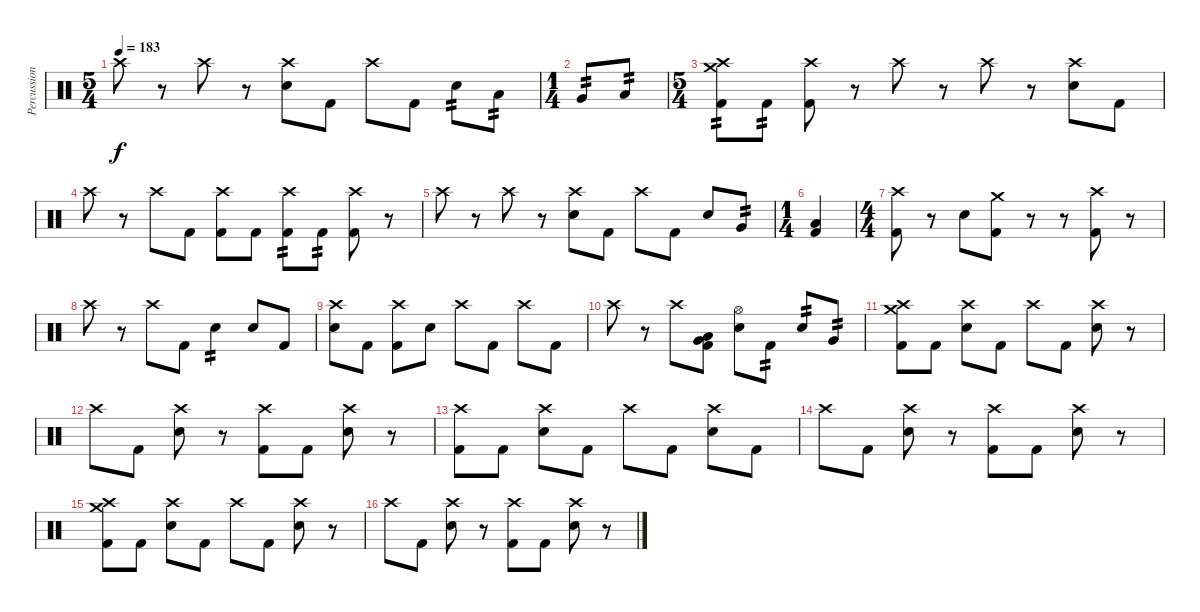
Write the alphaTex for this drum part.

\track ("Percussion" "Percussion") {instrument percussion}
\staff {score}
\articulation defaults
\ts (5 4)
\tempo 183
\clef neutral
\ks c "Crash high (hit)".8{dy f}
r.8 "Crash high (hit)".8 r.8 ("Snare (hit) 2" "Crash high (hit)").8 "Kick (hit) 2".8 "Crash high (hit)".8 "Kick (hit) 2".8 "Snare (hit) 2".8{tp 2} "Low Tom (hit)".8{tp 2} |
\ts (1 4)
"Very Low Tom (hit)".8{tp 2} "Low Floor Tom (hit)".8{tp 2} |
\ts (5 4)
("Crash high (hit)" "Crash medium (hit)" "Kick (hit) 2").8{tp 2} "Kick (hit) 2".8{tp 2} ("Crash high (hit)" "Kick (hit) 2").8 r.8 "Crash high (hit)".8 r.8 "Crash high (hit)".8 r.8 ("Crash high (hit)" "Snare (hit) 2").8 "Kick (hit) 2".8 |
"Crash high (hit)".8 r.8 "Crash high (hit)".8 "Kick (hit) 2".8 ("Kick (hit) 2" "Crash high (hit)").8 "Kick (hit) 2".8 ("Kick (hit) 2" "Crash high (hit)").8{tp 2} "Kick (hit) 2".8{tp 2} ("Kick (hit) 2" "Crash high (hit)").8 r.8 |
"Crash high (hit)".8 r.8 "Crash high (hit)".8 r.8 ("Snare (hit) 2" "Crash high (hit)").8 "Kick (hit) 2".8 "Crash high (hit)".8 "Kick (hit) 2".8 "Snare (hit) 2".8 "Very Low Tom (hit)".8{tp 2} |
\ts (1 4)
("Low Floor Tom (hit)" "Kick (hit) 2").4 |
\ts (4 4)
("Kick (hit) 2" "Crash high (hit)").8 r.8 "Snare (hit) 2".8 ("Kick (hit) 2" "Crash medium (hit)").8 r.8 r.8 ("Kick (hit) 2" "Crash high (hit)").8 r.8 |
"Crash high (hit)".8 r.8 "Crash high (hit)".8 "Kick (hit) 2".8 "Snare (hit) 2".4{tp 2} "Snare (hit) 2".8 "Kick (hit) 2".8 |
("Snare (hit) 2" "Crash high (hit)").8 "Kick (hit) 2".8 ("Kick (hit) 2" "Crash high (hit)").8 "Snare (hit) 2".8 "Crash high (hit)".8 "Kick (hit) 2".8 "Crash high (hit)".8 "Kick (hit) 2".8 |
"Crash high (hit)".8 r.8 "Crash high (hit)".8 ("Kick (hit) 2" "Very Low Tom (hit)" "Low Floor Tom (hit)").8 ("Snare (hit) 2" "Hi-Hat (open)").8 "Kick (hit) 2".8{tp 2} "Snare (hit) 2".8{tp 2} "Very Low Tom (hit)".8{tp 2} |
("Kick (hit) 2" "Crash medium (hit)" "Crash high (hit)").8 "Kick (hit) 2".8 ("Snare (hit) 2" "Crash high (hit)").8 "Kick (hit) 2".8 "Crash high (hit)".8 "Kick (hit) 2".8 ("Snare (hit) 2" "Crash high (hit)").8 r.8 |
"Crash high (hit)".8 "Kick (hit) 2".8 ("Snare (hit) 2" "Crash high (hit)").8 r.8 ("Kick (hit) 2" "Crash high (hit)").8 "Kick (hit) 2".8 ("Snare (hit) 2" "Crash high (hit)").8 r.8 |
("Kick (hit) 2" "Crash high (hit)").8 "Kick (hit) 2".8 ("Snare (hit) 2" "Crash high (hit)").8 "Kick (hit) 2".8 "Crash high (hit)".8 "Kick (hit) 2".8 ("Snare (hit) 2" "Crash high (hit)").8 "Kick (hit) 2".8 |
"Crash high (hit)".8 "Kick (hit) 2".8 ("Snare (hit) 2" "Crash high (hit)").8 r.8 ("Kick (hit) 2" "Crash high (hit)").8 "Kick (hit) 2".8 ("Snare (hit) 2" "Crash high (hit)").8 r.8 |
("Kick (hit) 2" "Crash medium (hit)" "Crash high (hit)").8 "Kick (hit) 2".8 ("Snare (hit) 2" "Crash high (hit)").8 "Kick (hit) 2".8 "Crash high (hit)".8 "Kick (hit) 2".8 ("Snare (hit) 2" "Crash high (hit)").8 r.8 |
"Crash high (hit)".8 "Kick (hit) 2".8 ("Snare (hit) 2" "Crash high (hit)").8 r.8 ("Kick (hit) 2" "Crash high (hit)").8 "Kick (hit) 2".8 ("Snare (hit) 2" "Crash high (hit)").8 r.8
